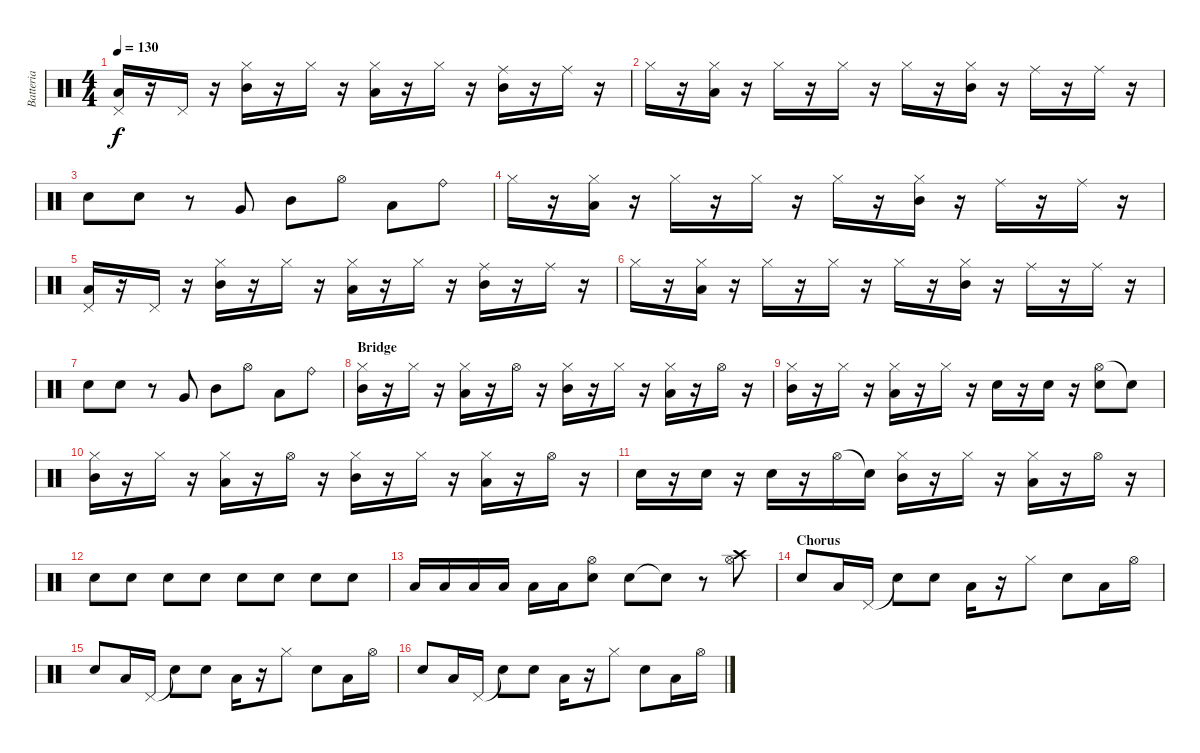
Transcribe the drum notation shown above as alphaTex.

\track ("Batteria" "Batteria") {instrument percussion}
\staff {score}
\articulation defaults
\ts (4 4)
\tempo 130
\clef neutral
\ks c
("Pedal Hi-Hat (hit)" "Low Tom (hit)").16{dy f} r.16 "Pedal Hi-Hat (hit)".16 r.16 ("Hi-Hat (closed)" "Mid Tom (hit)").16 r.16 "Hi-Hat (closed)".16 r.16 ("Hi-Hat (closed)" "Low Tom (hit)").16 r.16 "Hi-Hat (closed)".16 r.16 ("Ride (middle)" "Mid Tom (hit)").16 r.16 "Ride (middle)".16 r.16 |
"Hi-Hat (closed)".16 r.16 ("Hi-Hat (closed)" "Low Tom (hit)").16 r.16 "Hi-Hat (closed)".16 r.16 "Hi-Hat (closed)".16 r.16 "Hi-Hat (closed)".16 r.16 ("Hi-Hat (closed)" "Mid Tom (hit)").16 r.16 "Ride (middle)".16 r.16 "Ride (middle)".16 r.16 |
"Electric Snare (hit)".8 "Electric Snare (hit)".8 r.8 "Very Low Tom (hit)".8 "Mid Tom (hit)".8 "Hi-Hat (open)".8 "Low Tom (hit)".8 "Ride (bell)".8 |
"Hi-Hat (closed)".16 r.16 ("Hi-Hat (closed)" "Low Tom (hit)").16 r.16 "Hi-Hat (closed)".16 r.16 "Hi-Hat (closed)".16 r.16 "Hi-Hat (closed)".16 r.16 ("Hi-Hat (closed)" "Mid Tom (hit)").16 r.16 "Ride (middle)".16 r.16 "Ride (middle)".16 r.16 |
("Pedal Hi-Hat (hit)" "Low Tom (hit)").16 r.16 "Pedal Hi-Hat (hit)".16 r.16 ("Hi-Hat (closed)" "Mid Tom (hit)").16 r.16 "Hi-Hat (closed)".16 r.16 ("Hi-Hat (closed)" "Low Tom (hit)").16 r.16 "Hi-Hat (closed)".16 r.16 ("Ride (middle)" "Mid Tom (hit)").16 r.16 "Ride (middle)".16 r.16 |
"Hi-Hat (closed)".16 r.16 ("Hi-Hat (closed)" "Low Tom (hit)").16 r.16 "Hi-Hat (closed)".16 r.16 "Hi-Hat (closed)".16 r.16 "Hi-Hat (closed)".16 r.16 ("Hi-Hat (closed)" "Mid Tom (hit)").16 r.16 "Ride (middle)".16 r.16 "Ride (middle)".16 r.16 |
"Electric Snare (hit)".8 "Electric Snare (hit)".8 r.8 "Very Low Tom (hit)".8 "Mid Tom (hit)".8 "Hi-Hat (open)".8 "Low Tom (hit)".8 "Ride (bell)".8 |
\section ("" "Bridge")
("Hi-Hat (closed)" "Mid Tom (hit)").16 r.16 "Hi-Hat (closed)".16 r.16 ("Hi-Hat (closed)" "Low Tom (hit)").16 r.16 "Hi-Hat (open)".16 r.16 ("Hi-Hat (closed)" "Mid Tom (hit)").16 r.16 "Hi-Hat (closed)".16 r.16 ("Hi-Hat (closed)" "Low Tom (hit)").16 r.16 "Hi-Hat (open)".16 r.16 |
("Hi-Hat (closed)" "Mid Tom (hit)").16 r.16 "Hi-Hat (closed)".16 r.16 ("Hi-Hat (closed)" "Low Tom (hit)").16 r.16 "Hi-Hat (closed)".16 r.16 "Electric Snare (hit)".16 r.16 "Electric Snare (hit)".16 r.16 ("Hi-Hat (open)" "Electric Snare (hit)").8 "Snare (hit)"{t}.8 |
("Hi-Hat (closed)" "Mid Tom (hit)").16 r.16 "Hi-Hat (closed)".16 r.16 ("Hi-Hat (closed)" "Low Tom (hit)").16 r.16 "Hi-Hat (open)".16 r.16 ("Hi-Hat (closed)" "Mid Tom (hit)").16 r.16 "Hi-Hat (closed)".16 r.16 ("Hi-Hat (closed)" "Low Tom (hit)").16 r.16 "Hi-Hat (open)".16 r.16 |
"Electric Snare (hit)".16 r.16 "Electric Snare (hit)".16 r.16 "Electric Snare (hit)".16 r.16 "Hi-Hat (open)".16 "Snare (hit)"{t}.16 ("Hi-Hat (closed)" "Mid Tom (hit)").16 r.16 "Hi-Hat (closed)".16 r.16 ("Hi-Hat (closed)" "Low Tom (hit)").16 r.16 "Hi-Hat (open)".16 r.16 |
"Electric Snare (hit)".8 "Electric Snare (hit)".8 "Electric Snare (hit)".8 "Electric Snare (hit)".8 "Snare (hit) 2".8 "Snare (hit) 2".8 "Snare (hit) 2".8 "Snare (hit) 2".8 |
"Low Tom (hit)".16 "Low Tom (hit)".16 "Low Tom (hit)".16 "Low Tom (hit)".16 "Low Tom (hit)".16 "Low Tom (hit)".16 ("Hi-Hat (open)" "Electric Snare (hit)").8 "Snare (hit) 2".8 "Snare (hit)"{t}.8 r.8 ("Hi-Hat (open)" "Crash high (hit)").8 |
\section ("" "Chorus")
"Electric Snare (hit)".8 "Low Tom (hit)".16 "Pedal Hi-Hat (hit)".16 "Snare (hit)"{t}.8 "Electric Snare (hit)".8 "Low Tom (hit)".16 r.16 "Hi-Hat (closed)".8 "Electric Snare (hit)".8 "Low Tom (hit)".16 "Hi-Hat (open)".16 |
"Electric Snare (hit)".8 "Low Tom (hit)".16 "Pedal Hi-Hat (hit)".16 "Snare (hit)"{t}.8 "Electric Snare (hit)".8 "Low Tom (hit)".16 r.16 "Hi-Hat (closed)".8 "Electric Snare (hit)".8 "Low Tom (hit)".16 "Hi-Hat (open)".16 |
"Electric Snare (hit)".8 "Low Tom (hit)".16 "Pedal Hi-Hat (hit)".16 "Snare (hit)"{t}.8 "Electric Snare (hit)".8 "Low Tom (hit)".16 r.16 "Hi-Hat (closed)".8 "Electric Snare (hit)".8 "Low Tom (hit)".16 "Hi-Hat (open)".16
